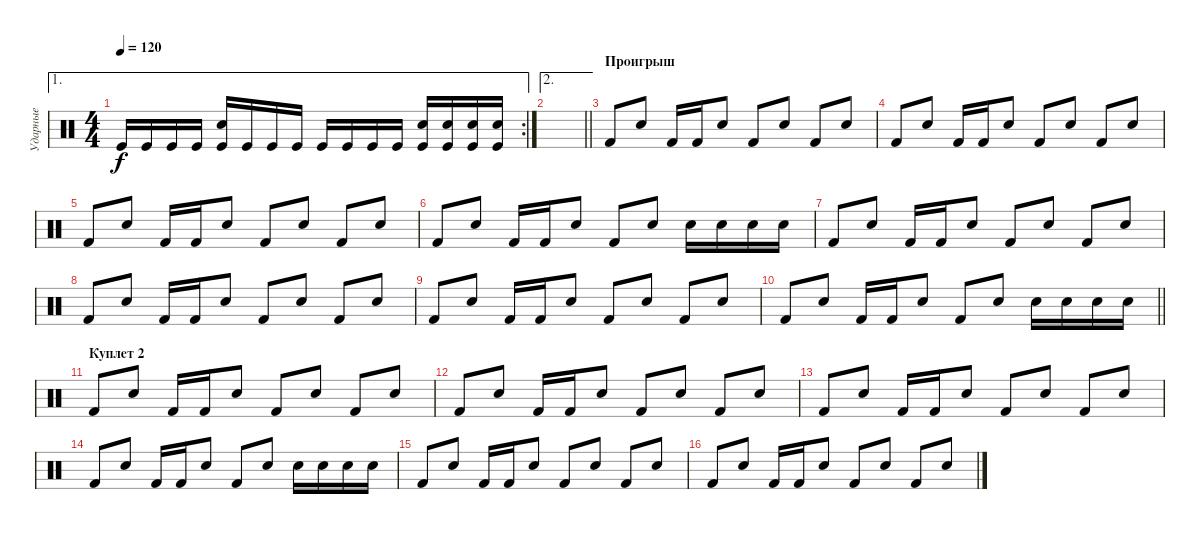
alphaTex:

\track ("Ударные" "Ударные") {instrument percussion}
\staff {score}
\articulation defaults
\ae 1
\rc 2
\ts (4 4)
\tempo 120
\clef neutral
\ks c "Kick (hit)".16{dy f} "Kick (hit)".16 "Kick (hit)".16 "Kick (hit)".16
("Kick (hit)" "Snare (hit) 2").16 "Kick (hit)".16 "Kick (hit)".16 "Kick (hit)".16 "Kick (hit)".16 "Kick (hit)".16 "Kick (hit)".16 "Kick (hit)".16 ("Kick (hit)" "Snare (hit) 2").16 ("Kick (hit)" "Snare (hit) 2").16 ("Kick (hit)" "Snare (hit) 2").16 ("Kick (hit)" "Snare (hit) 2").16 |
\ae 2
\barLineRight lightlight
|
\section ("" "Проигрыш")
"Kick (hit) 2".8 "Electric Snare (hit)".8 "Kick (hit) 2".16 "Kick (hit) 2".16 "Electric Snare (hit)".8 "Kick (hit) 2".8 "Electric Snare (hit)".8 "Kick (hit) 2".8 "Electric Snare (hit)".8 |
"Kick (hit) 2".8 "Electric Snare (hit)".8 "Kick (hit) 2".16 "Kick (hit) 2".16 "Electric Snare (hit)".8 "Kick (hit) 2".8 "Electric Snare (hit)".8 "Kick (hit) 2".8 "Electric Snare (hit)".8 |
"Kick (hit) 2".8 "Electric Snare (hit)".8 "Kick (hit) 2".16 "Kick (hit) 2".16 "Electric Snare (hit)".8 "Kick (hit) 2".8 "Electric Snare (hit)".8 "Kick (hit) 2".8 "Electric Snare (hit)".8 |
"Kick (hit) 2".8 "Electric Snare (hit)".8 "Kick (hit) 2".16 "Kick (hit) 2".16 "Electric Snare (hit)".8 "Kick (hit) 2".8 "Electric Snare (hit)".8 "Electric Snare (hit)".16 "Electric Snare (hit)".16 "Electric Snare (hit)".16 "Electric Snare (hit)".16 |
"Kick (hit) 2".8 "Electric Snare (hit)".8 "Kick (hit) 2".16 "Kick (hit) 2".16 "Electric Snare (hit)".8 "Kick (hit) 2".8 "Electric Snare (hit)".8 "Kick (hit) 2".8 "Electric Snare (hit)".8 |
"Kick (hit) 2".8 "Electric Snare (hit)".8 "Kick (hit) 2".16 "Kick (hit) 2".16 "Electric Snare (hit)".8 "Kick (hit) 2".8 "Electric Snare (hit)".8 "Kick (hit) 2".8 "Electric Snare (hit)".8 |
"Kick (hit) 2".8 "Electric Snare (hit)".8 "Kick (hit) 2".16 "Kick (hit) 2".16 "Electric Snare (hit)".8 "Kick (hit) 2".8 "Electric Snare (hit)".8 "Kick (hit) 2".8 "Electric Snare (hit)".8 |
\barLineRight lightlight "Kick (hit) 2".8 "Electric Snare (hit)".8 "Kick (hit) 2".16 "Kick (hit) 2".16 "Electric Snare (hit)".8 "Kick (hit) 2".8 "Electric Snare (hit)".8 "Electric Snare (hit)".16 "Electric Snare (hit)".16 "Electric Snare (hit)".16 "Electric Snare (hit)".16
|
\section ("" "Куплет 2")
"Kick (hit) 2".8 "Electric Snare (hit)".8 "Kick (hit) 2".16 "Kick (hit) 2".16 "Electric Snare (hit)".8 "Kick (hit) 2".8 "Electric Snare (hit)".8 "Kick (hit) 2".8 "Electric Snare (hit)".8 |
"Kick (hit) 2".8 "Electric Snare (hit)".8 "Kick (hit) 2".16 "Kick (hit) 2".16 "Electric Snare (hit)".8 "Kick (hit) 2".8 "Electric Snare (hit)".8 "Kick (hit) 2".8 "Electric Snare (hit)".8 |
"Kick (hit) 2".8 "Electric Snare (hit)".8 "Kick (hit) 2".16 "Kick (hit) 2".16 "Electric Snare (hit)".8 "Kick (hit) 2".8 "Electric Snare (hit)".8 "Kick (hit) 2".8 "Electric Snare (hit)".8 |
"Kick (hit) 2".8 "Electric Snare (hit)".8 "Kick (hit) 2".16 "Kick (hit) 2".16 "Electric Snare (hit)".8 "Kick (hit) 2".8 "Electric Snare (hit)".8 "Electric Snare (hit)".16 "Electric Snare (hit)".16 "Electric Snare (hit)".16 "Electric Snare (hit)".16 |
"Kick (hit) 2".8 "Electric Snare (hit)".8 "Kick (hit) 2".16 "Kick (hit) 2".16 "Electric Snare (hit)".8 "Kick (hit) 2".8 "Electric Snare (hit)".8 "Kick (hit) 2".8 "Electric Snare (hit)".8 |
"Kick (hit) 2".8 "Electric Snare (hit)".8 "Kick (hit) 2".16 "Kick (hit) 2".16 "Electric Snare (hit)".8 "Kick (hit) 2".8 "Electric Snare (hit)".8 "Kick (hit) 2".8 "Electric Snare (hit)".8
